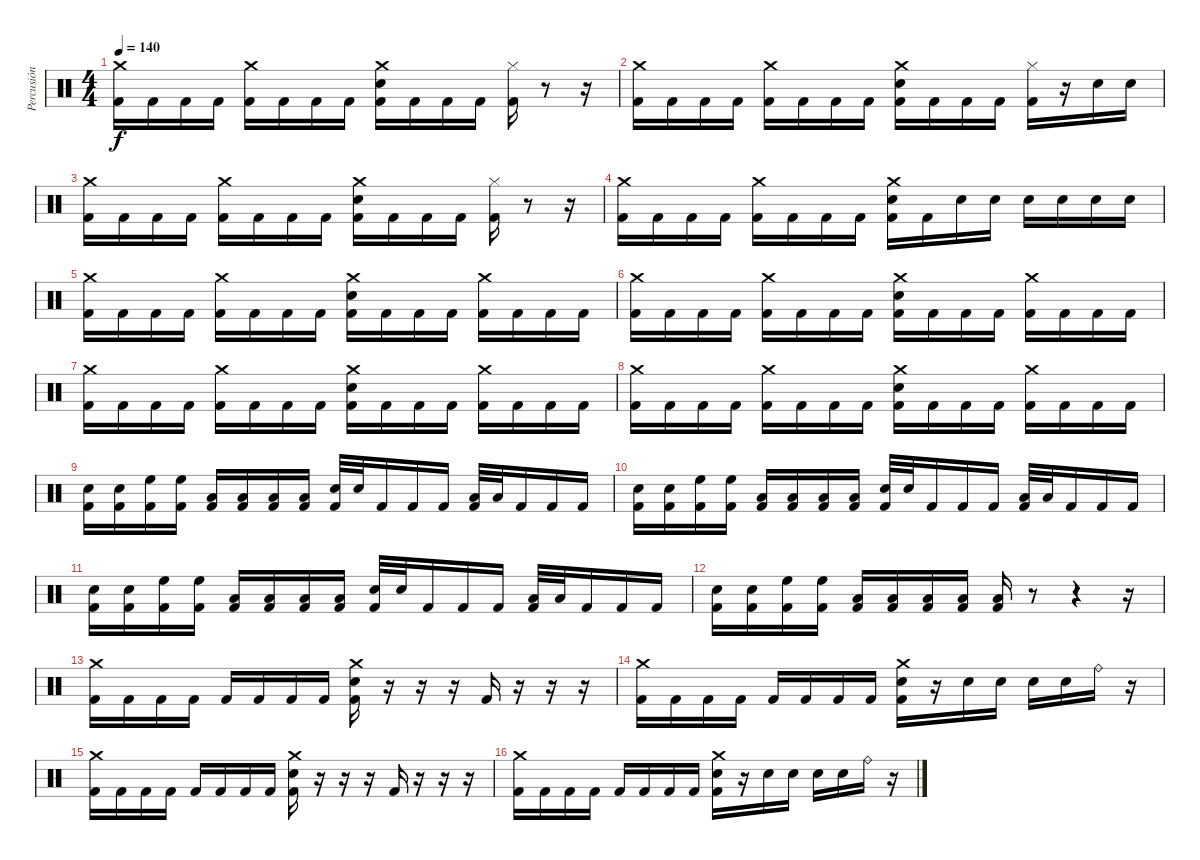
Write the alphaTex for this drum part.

\track ("Percusión" "Percusión") {instrument percussion}
\staff {score}
\articulation defaults
\ts (4 4)
\tempo 140
\clef neutral
\ks c
("Crash medium (hit)" "Kick (hit) 2").16{dy f} "Kick (hit) 2".16 "Kick (hit) 2".16 "Kick (hit) 2".16 ("Crash medium (hit)" "Kick (hit) 2").16 "Kick (hit) 2".16 "Kick (hit) 2".16 "Kick (hit) 2".16 ("Crash medium (hit)" "Electric Snare (hit)" "Kick (hit) 2").16 "Kick (hit) 2".16 "Kick (hit) 2".16 "Kick (hit) 2".16 ("Hi-Hat (closed)" "Kick (hit) 2").16 r.8 r.16 |
("Crash medium (hit)" "Kick (hit) 2").16 "Kick (hit) 2".16 "Kick (hit) 2".16 "Kick (hit) 2".16 ("Crash medium (hit)" "Kick (hit) 2").16 "Kick (hit) 2".16 "Kick (hit) 2".16 "Kick (hit) 2".16 ("Crash medium (hit)" "Electric Snare (hit)" "Kick (hit) 2").16 "Kick (hit) 2".16 "Kick (hit) 2".16 "Kick (hit) 2".16 ("Hi-Hat (closed)" "Kick (hit) 2").16 r.16 "Electric Snare (hit)".16 "Electric Snare (hit)".16 |
("Crash medium (hit)" "Kick (hit) 2").16 "Kick (hit) 2".16 "Kick (hit) 2".16 "Kick (hit) 2".16 ("Crash medium (hit)" "Kick (hit) 2").16 "Kick (hit) 2".16 "Kick (hit) 2".16 "Kick (hit) 2".16 ("Crash medium (hit)" "Electric Snare (hit)" "Kick (hit) 2").16 "Kick (hit) 2".16 "Kick (hit) 2".16 "Kick (hit) 2".16 ("Hi-Hat (closed)" "Kick (hit) 2").16 r.8 r.16 |
("Crash medium (hit)" "Kick (hit) 2").16 "Kick (hit) 2".16 "Kick (hit) 2".16 "Kick (hit) 2".16 ("Crash medium (hit)" "Kick (hit) 2").16 "Kick (hit) 2".16 "Kick (hit) 2".16 "Kick (hit) 2".16 ("Crash medium (hit)" "Electric Snare (hit)" "Kick (hit) 2").16 "Kick (hit) 2".16 "Electric Snare (hit)".16 "Electric Snare (hit)".16 "Electric Snare (hit)".16 "Electric Snare (hit)".16 "Electric Snare (hit)".16 "Electric Snare (hit)".16 |
("Crash medium (hit)" "Kick (hit) 2").16 "Kick (hit) 2".16 "Kick (hit) 2".16 "Kick (hit) 2".16 ("Crash medium (hit)" "Kick (hit) 2").16 "Kick (hit) 2".16 "Kick (hit) 2".16 "Kick (hit) 2".16 ("Crash medium (hit)" "Electric Snare (hit)" "Kick (hit) 2").16 "Kick (hit) 2".16 "Kick (hit) 2".16 "Kick (hit) 2".16 ("Crash medium (hit)" "Kick (hit) 2").16 "Kick (hit) 2".16 "Kick (hit) 2".16 "Kick (hit) 2".16 |
("Crash medium (hit)" "Kick (hit) 2").16 "Kick (hit) 2".16 "Kick (hit) 2".16 "Kick (hit) 2".16 ("Crash medium (hit)" "Kick (hit) 2").16 "Kick (hit) 2".16 "Kick (hit) 2".16 "Kick (hit) 2".16 ("Crash medium (hit)" "Electric Snare (hit)" "Kick (hit) 2").16 "Kick (hit) 2".16 "Kick (hit) 2".16 "Kick (hit) 2".16 ("Crash medium (hit)" "Kick (hit) 2").16 "Kick (hit) 2".16 "Kick (hit) 2".16 "Kick (hit) 2".16 |
("Crash medium (hit)" "Kick (hit) 2").16 "Kick (hit) 2".16 "Kick (hit) 2".16 "Kick (hit) 2".16 ("Crash medium (hit)" "Kick (hit) 2").16 "Kick (hit) 2".16 "Kick (hit) 2".16 "Kick (hit) 2".16 ("Crash medium (hit)" "Electric Snare (hit)" "Kick (hit) 2").16 "Kick (hit) 2".16 "Kick (hit) 2".16 "Kick (hit) 2".16 ("Crash medium (hit)" "Kick (hit) 2").16 "Kick (hit) 2".16 "Kick (hit) 2".16 "Kick (hit) 2".16 |
("Crash medium (hit)" "Kick (hit) 2").16 "Kick (hit) 2".16 "Kick (hit) 2".16 "Kick (hit) 2".16 ("Crash medium (hit)" "Kick (hit) 2").16 "Kick (hit) 2".16 "Kick (hit) 2".16 "Kick (hit) 2".16 ("Crash medium (hit)" "Electric Snare (hit)" "Kick (hit) 2").16 "Kick (hit) 2".16 "Kick (hit) 2".16 "Kick (hit) 2".16 ("Crash medium (hit)" "Kick (hit) 2").16 "Kick (hit) 2".16 "Kick (hit) 2".16 "Kick (hit) 2".16 |
("Electric Snare (hit)" "Kick (hit) 2").16 ("Electric Snare (hit)" "Kick (hit) 2").16 ("High Floor Tom (hit)" "Kick (hit) 2").16 ("High Floor Tom (hit)" "Kick (hit) 2").16 ("Low Tom (hit)" "Kick (hit) 2").16 ("Low Tom (hit)" "Kick (hit) 2").16 ("Low Tom (hit)" "Kick (hit) 2").16 ("Low Tom (hit)" "Kick (hit) 2").16 ("Electric Snare (hit)" "Kick (hit) 2").32 "Electric Snare (hit)".32 "Kick (hit) 2".16 "Kick (hit) 2".16 "Kick (hit) 2".16 ("Low Tom (hit)" "Kick (hit) 2").32 "Low Tom (hit)".32 "Kick (hit) 2".16 "Kick (hit) 2".16 "Kick (hit) 2".16 |
("Electric Snare (hit)" "Kick (hit) 2").16 ("Electric Snare (hit)" "Kick (hit) 2").16 ("High Floor Tom (hit)" "Kick (hit) 2").16 ("High Floor Tom (hit)" "Kick (hit) 2").16 ("Low Tom (hit)" "Kick (hit) 2").16 ("Low Tom (hit)" "Kick (hit) 2").16 ("Low Tom (hit)" "Kick (hit) 2").16 ("Low Tom (hit)" "Kick (hit) 2").16 ("Electric Snare (hit)" "Kick (hit) 2").32 "Electric Snare (hit)".32 "Kick (hit) 2".16 "Kick (hit) 2".16 "Kick (hit) 2".16 ("Low Tom (hit)" "Kick (hit) 2").32 "Low Tom (hit)".32 "Kick (hit) 2".16 "Kick (hit) 2".16 "Kick (hit) 2".16 |
("Electric Snare (hit)" "Kick (hit) 2").16 ("Electric Snare (hit)" "Kick (hit) 2").16 ("High Floor Tom (hit)" "Kick (hit) 2").16 ("High Floor Tom (hit)" "Kick (hit) 2").16 ("Low Tom (hit)" "Kick (hit) 2").16 ("Low Tom (hit)" "Kick (hit) 2").16 ("Low Tom (hit)" "Kick (hit) 2").16 ("Low Tom (hit)" "Kick (hit) 2").16 ("Electric Snare (hit)" "Kick (hit) 2").32 "Electric Snare (hit)".32 "Kick (hit) 2".16 "Kick (hit) 2".16 "Kick (hit) 2".16 ("Low Tom (hit)" "Kick (hit) 2").32 "Low Tom (hit)".32 "Kick (hit) 2".16 "Kick (hit) 2".16 "Kick (hit) 2".16 |
("Electric Snare (hit)" "Kick (hit) 2").16 ("Electric Snare (hit)" "Kick (hit) 2").16 ("High Floor Tom (hit)" "Kick (hit) 2").16 ("High Floor Tom (hit)" "Kick (hit) 2").16 ("Low Tom (hit)" "Kick (hit) 2").16 ("Low Tom (hit)" "Kick (hit) 2").16 ("Low Tom (hit)" "Kick (hit) 2").16 ("Low Tom (hit)" "Kick (hit) 2").16 ("Low Floor Tom (hit)" "Kick (hit) 2").16 r.8 r.4 r.16 |
("Crash medium (hit)" "Kick (hit) 2").16 "Kick (hit) 2".16 "Kick (hit) 2".16 "Kick (hit) 2".16 "Kick (hit) 2".16 "Kick (hit) 2".16 "Kick (hit) 2".16 "Kick (hit) 2".16 ("Crash medium (hit)" "Electric Snare (hit)" "Kick (hit) 2").16 r.16 r.16 r.16 "Kick (hit) 2".16 r.16 r.16 r.16 |
("Crash medium (hit)" "Kick (hit) 2").16 "Kick (hit) 2".16 "Kick (hit) 2".16 "Kick (hit) 2".16 "Kick (hit) 2".16 "Kick (hit) 2".16 "Kick (hit) 2".16 "Kick (hit) 2".16 ("Crash medium (hit)" "Electric Snare (hit)" "Kick (hit) 2").16 r.16 "Electric Snare (hit)".16 "Electric Snare (hit)".16 "Electric Snare (hit)".16 "Electric Snare (hit)".16 "Ride (bell)".16 r.16 |
("Crash medium (hit)" "Kick (hit) 2").16 "Kick (hit) 2".16 "Kick (hit) 2".16 "Kick (hit) 2".16 "Kick (hit) 2".16 "Kick (hit) 2".16 "Kick (hit) 2".16 "Kick (hit) 2".16 ("Crash medium (hit)" "Electric Snare (hit)" "Kick (hit) 2").16 r.16 r.16 r.16 "Kick (hit) 2".16 r.16 r.16 r.16 |
("Crash medium (hit)" "Kick (hit) 2").16 "Kick (hit) 2".16 "Kick (hit) 2".16 "Kick (hit) 2".16 "Kick (hit) 2".16 "Kick (hit) 2".16 "Kick (hit) 2".16 "Kick (hit) 2".16 ("Crash medium (hit)" "Electric Snare (hit)" "Kick (hit) 2").16 r.16 "Electric Snare (hit)".16 "Electric Snare (hit)".16 "Electric Snare (hit)".16 "Electric Snare (hit)".16 "Ride (bell)".16 r.16
